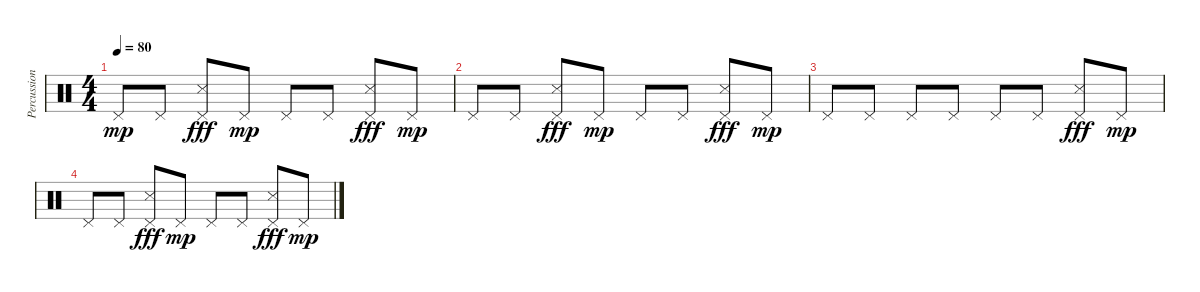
\track ("Percussions" "Percussion") {instrument percussion}
\staff {score}
\articulation defaults
\ts (4 4)
\tempo 80
\clef neutral
\ks c "Pedal Hi-Hat (hit)".8{dy mp} "Pedal Hi-Hat (hit)".8
("Pedal Hi-Hat (hit)" "Snare (side stick) 3").8{dy fff} "Pedal Hi-Hat (hit)".8{dy mp} "Pedal Hi-Hat (hit)".8 "Pedal Hi-Hat (hit)".8 ("Pedal Hi-Hat (hit)" "Snare (side stick) 3").8{dy fff} "Pedal Hi-Hat (hit)".8{dy mp} |
"Pedal Hi-Hat (hit)".8 "Pedal Hi-Hat (hit)".8 ("Pedal Hi-Hat (hit)" "Snare (side stick) 3").8{dy fff} "Pedal Hi-Hat (hit)".8{dy mp} "Pedal Hi-Hat (hit)".8 "Pedal Hi-Hat (hit)".8 ("Pedal Hi-Hat (hit)" "Snare (side stick) 3").8{dy fff} "Pedal Hi-Hat (hit)".8{dy mp} |
"Pedal Hi-Hat (hit)".8 "Pedal Hi-Hat (hit)".8 "Pedal Hi-Hat (hit)".8 "Pedal Hi-Hat (hit)".8 "Pedal Hi-Hat (hit)".8 "Pedal Hi-Hat (hit)".8 ("Pedal Hi-Hat (hit)" "Snare (side stick) 3").8{dy fff} "Pedal Hi-Hat (hit)".8{dy mp} |
"Pedal Hi-Hat (hit)".8 "Pedal Hi-Hat (hit)".8 ("Pedal Hi-Hat (hit)" "Snare (side stick) 3").8{dy fff} "Pedal Hi-Hat (hit)".8{dy mp} "Pedal Hi-Hat (hit)".8 "Pedal Hi-Hat (hit)".8 ("Pedal Hi-Hat (hit)" "Snare (side stick) 3").8{dy fff} "Pedal Hi-Hat (hit)".8{dy mp}
